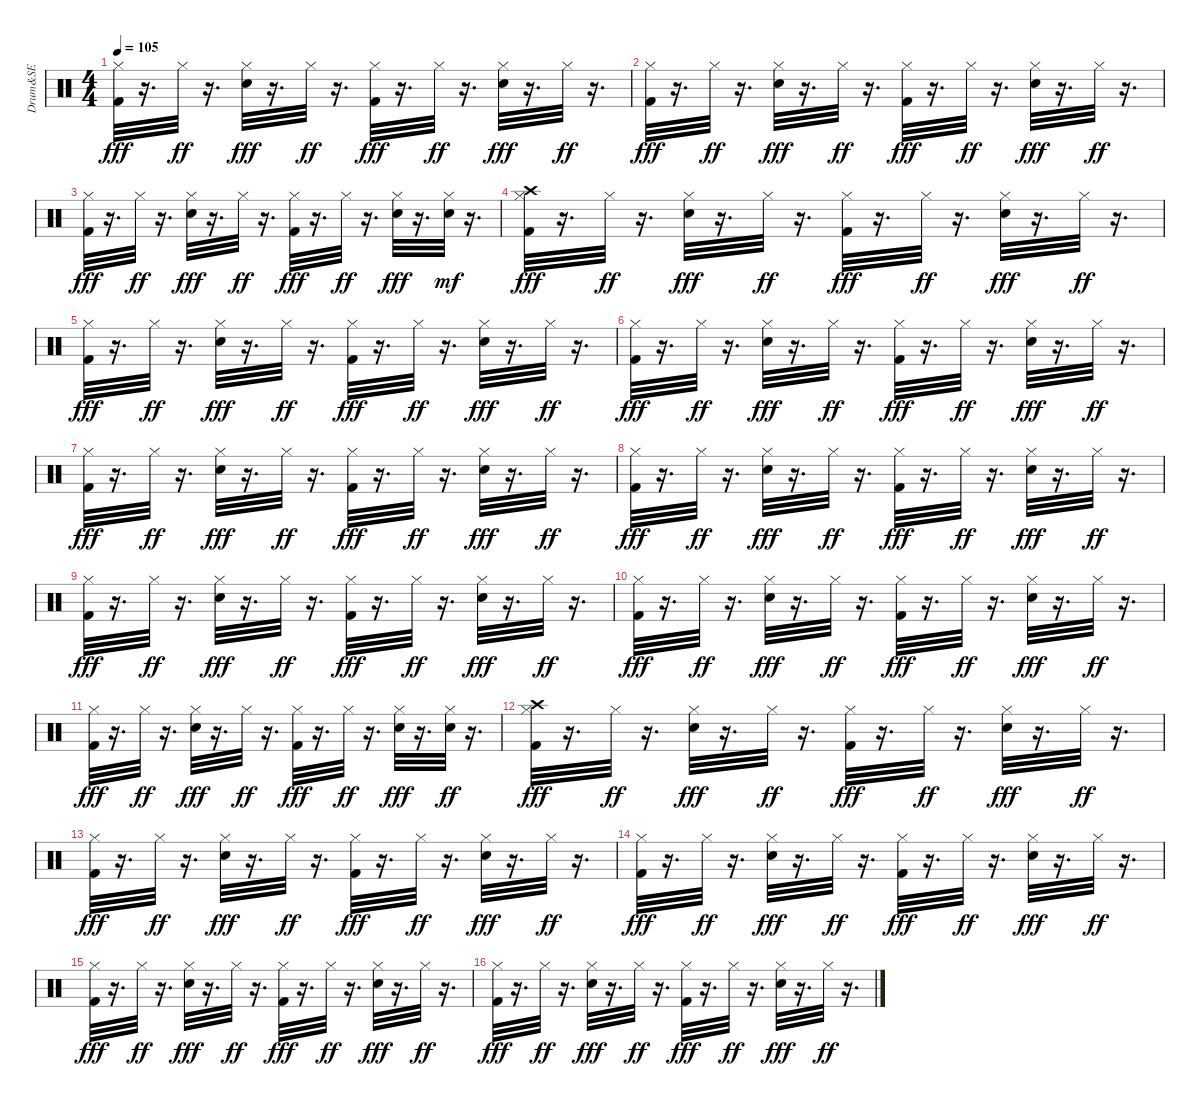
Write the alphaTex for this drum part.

\track ("Drum&SE" "Drum&SE") {instrument percussion}
\staff {score}
\articulation defaults
\ts (4 4)
\tempo 105
\clef neutral
\ks c
("Kick (hit) 2" "Hi-Hat (closed)").32{dy fff} r.16{d} "Hi-Hat (closed)".32{dy ff} r.16{d} ("Snare (hit) 2" "Hi-Hat (closed)").32{dy fff} r.16{d} "Hi-Hat (closed)".32{dy ff} r.16{d} ("Kick (hit) 2" "Hi-Hat (closed)").32{dy fff} r.16{d} "Hi-Hat (closed)".32{dy ff} r.16{d} ("Snare (hit) 2" "Hi-Hat (closed)").32{dy fff} r.16{d} "Hi-Hat (closed)".32{dy ff} r.16{d} |
("Kick (hit) 2" "Hi-Hat (closed)").32{dy fff} r.16{d} "Hi-Hat (closed)".32{dy ff} r.16{d} ("Snare (hit) 2" "Hi-Hat (closed)").32{dy fff} r.16{d} "Hi-Hat (closed)".32{dy ff} r.16{d} ("Kick (hit) 2" "Hi-Hat (closed)").32{dy fff} r.16{d} "Hi-Hat (closed)".32{dy ff} r.16{d} ("Snare (hit) 2" "Hi-Hat (closed)").32{dy fff} r.16{d} "Hi-Hat (closed)".32{dy ff} r.16{d} |
("Kick (hit) 2" "Hi-Hat (closed)").32{dy fff} r.16{d} "Hi-Hat (closed)".32{dy ff} r.16{d} ("Snare (hit) 2" "Hi-Hat (closed)").32{dy fff} r.16{d} "Hi-Hat (closed)".32{dy ff} r.16{d} ("Kick (hit) 2" "Hi-Hat (closed)").32{dy fff} r.16{d} "Hi-Hat (closed)".32{dy ff} r.16{d} ("Snare (hit) 2" "Hi-Hat (closed)").32{dy fff} r.16{d} ("Snare (hit) 2" "Hi-Hat (closed)").32{dy mf} r.16{d} |
("Kick (hit) 2" "Hi-Hat (closed)" "Crash high (hit)").32{dy fff volume 8} r.16{d} "Hi-Hat (closed)".32{dy ff volume 8} r.16{d} ("Snare (hit) 2" "Hi-Hat (closed)").32{dy fff} r.16{d} "Hi-Hat (closed)".32{dy ff} r.16{d} ("Kick (hit) 2" "Hi-Hat (closed)").32{dy fff} r.16{d} "Hi-Hat (closed)".32{dy ff} r.16{d} ("Snare (hit) 2" "Hi-Hat (closed)").32{dy fff} r.16{d} "Hi-Hat (closed)".32{dy ff} r.16{d} |
("Kick (hit) 2" "Hi-Hat (closed)").32{dy fff} r.16{d} "Hi-Hat (closed)".32{dy ff} r.16{d} ("Snare (hit) 2" "Hi-Hat (closed)").32{dy fff} r.16{d} "Hi-Hat (closed)".32{dy ff} r.16{d} ("Kick (hit) 2" "Hi-Hat (closed)").32{dy fff} r.16{d} "Hi-Hat (closed)".32{dy ff} r.16{d} ("Snare (hit) 2" "Hi-Hat (closed)").32{dy fff} r.16{d} "Hi-Hat (closed)".32{dy ff} r.16{d} |
("Kick (hit) 2" "Hi-Hat (closed)").32{dy fff} r.16{d} "Hi-Hat (closed)".32{dy ff} r.16{d} ("Snare (hit) 2" "Hi-Hat (closed)").32{dy fff} r.16{d} "Hi-Hat (closed)".32{dy ff} r.16{d} ("Kick (hit) 2" "Hi-Hat (closed)").32{dy fff} r.16{d} "Hi-Hat (closed)".32{dy ff} r.16{d} ("Snare (hit) 2" "Hi-Hat (closed)").32{dy fff} r.16{d} "Hi-Hat (closed)".32{dy ff} r.16{d} |
("Kick (hit) 2" "Hi-Hat (closed)").32{dy fff} r.16{d} "Hi-Hat (closed)".32{dy ff} r.16{d} ("Snare (hit) 2" "Hi-Hat (closed)").32{dy fff} r.16{d} "Hi-Hat (closed)".32{dy ff} r.16{d} ("Kick (hit) 2" "Hi-Hat (closed)").32{dy fff} r.16{d} "Hi-Hat (closed)".32{dy ff} r.16{d} ("Snare (hit) 2" "Hi-Hat (closed)").32{dy fff} r.16{d} "Hi-Hat (closed)".32{dy ff} r.16{d} |
("Kick (hit) 2" "Hi-Hat (closed)").32{dy fff} r.16{d} "Hi-Hat (closed)".32{dy ff} r.16{d} ("Snare (hit) 2" "Hi-Hat (closed)").32{dy fff} r.16{d} "Hi-Hat (closed)".32{dy ff} r.16{d} ("Kick (hit) 2" "Hi-Hat (closed)").32{dy fff} r.16{d} "Hi-Hat (closed)".32{dy ff} r.16{d} ("Snare (hit) 2" "Hi-Hat (closed)").32{dy fff} r.16{d} "Hi-Hat (closed)".32{dy ff} r.16{d} |
("Kick (hit) 2" "Hi-Hat (closed)").32{dy fff} r.16{d} "Hi-Hat (closed)".32{dy ff} r.16{d} ("Snare (hit) 2" "Hi-Hat (closed)").32{dy fff} r.16{d} "Hi-Hat (closed)".32{dy ff} r.16{d} ("Kick (hit) 2" "Hi-Hat (closed)").32{dy fff} r.16{d} "Hi-Hat (closed)".32{dy ff} r.16{d} ("Snare (hit) 2" "Hi-Hat (closed)").32{dy fff} r.16{d} "Hi-Hat (closed)".32{dy ff} r.16{d} |
("Kick (hit) 2" "Hi-Hat (closed)").32{dy fff} r.16{d} "Hi-Hat (closed)".32{dy ff} r.16{d} ("Snare (hit) 2" "Hi-Hat (closed)").32{dy fff} r.16{d} "Hi-Hat (closed)".32{dy ff} r.16{d} ("Kick (hit) 2" "Hi-Hat (closed)").32{dy fff} r.16{d} "Hi-Hat (closed)".32{dy ff} r.16{d} ("Snare (hit) 2" "Hi-Hat (closed)").32{dy fff} r.16{d} "Hi-Hat (closed)".32{dy ff} r.16{d} |
("Kick (hit) 2" "Hi-Hat (closed)").32{dy fff} r.16{d} "Hi-Hat (closed)".32{dy ff} r.16{d} ("Snare (hit) 2" "Hi-Hat (closed)").32{dy fff} r.16{d} "Hi-Hat (closed)".32{dy ff} r.16{d} ("Kick (hit) 2" "Hi-Hat (closed)").32{dy fff} r.16{d} "Hi-Hat (closed)".32{dy ff} r.16{d} ("Snare (hit) 2" "Hi-Hat (closed)").32{dy fff} r.16{d} ("Snare (hit) 2" "Hi-Hat (closed)").32{dy ff} r.16{d} |
("Kick (hit) 2" "Hi-Hat (closed)" "Crash high (hit)").32{dy fff} r.16{d} "Hi-Hat (closed)".32{dy ff} r.16{d} ("Snare (hit) 2" "Hi-Hat (closed)").32{dy fff} r.16{d} "Hi-Hat (closed)".32{dy ff} r.16{d} ("Kick (hit) 2" "Hi-Hat (closed)").32{dy fff} r.16{d} "Hi-Hat (closed)".32{dy ff} r.16{d} ("Snare (hit) 2" "Hi-Hat (closed)").32{dy fff} r.16{d} "Hi-Hat (closed)".32{dy ff} r.16{d} |
("Kick (hit) 2" "Hi-Hat (closed)").32{dy fff} r.16{d} "Hi-Hat (closed)".32{dy ff} r.16{d} ("Snare (hit) 2" "Hi-Hat (closed)").32{dy fff} r.16{d} "Hi-Hat (closed)".32{dy ff} r.16{d} ("Kick (hit) 2" "Hi-Hat (closed)").32{dy fff} r.16{d} "Hi-Hat (closed)".32{dy ff} r.16{d} ("Snare (hit) 2" "Hi-Hat (closed)").32{dy fff} r.16{d} "Hi-Hat (closed)".32{dy ff} r.16{d} |
("Kick (hit) 2" "Hi-Hat (closed)").32{dy fff} r.16{d} "Hi-Hat (closed)".32{dy ff} r.16{d} ("Snare (hit) 2" "Hi-Hat (closed)").32{dy fff} r.16{d} "Hi-Hat (closed)".32{dy ff} r.16{d} ("Kick (hit) 2" "Hi-Hat (closed)").32{dy fff} r.16{d} "Hi-Hat (closed)".32{dy ff} r.16{d} ("Snare (hit) 2" "Hi-Hat (closed)").32{dy fff} r.16{d} "Hi-Hat (closed)".32{dy ff} r.16{d} |
("Kick (hit) 2" "Hi-Hat (closed)").32{dy fff} r.16{d} "Hi-Hat (closed)".32{dy ff} r.16{d} ("Snare (hit) 2" "Hi-Hat (closed)").32{dy fff} r.16{d} "Hi-Hat (closed)".32{dy ff} r.16{d} ("Kick (hit) 2" "Hi-Hat (closed)").32{dy fff} r.16{d} "Hi-Hat (closed)".32{dy ff} r.16{d} ("Snare (hit) 2" "Hi-Hat (closed)").32{dy fff} r.16{d} "Hi-Hat (closed)".32{dy ff} r.16{d} |
("Kick (hit) 2" "Hi-Hat (closed)").32{dy fff} r.16{d} "Hi-Hat (closed)".32{dy ff} r.16{d} ("Snare (hit) 2" "Hi-Hat (closed)").32{dy fff} r.16{d} "Hi-Hat (closed)".32{dy ff} r.16{d} ("Kick (hit) 2" "Hi-Hat (closed)").32{dy fff} r.16{d} "Hi-Hat (closed)".32{dy ff} r.16{d} ("Snare (hit) 2" "Hi-Hat (closed)").32{dy fff} r.16{d} "Hi-Hat (closed)".32{dy ff} r.16{d}
